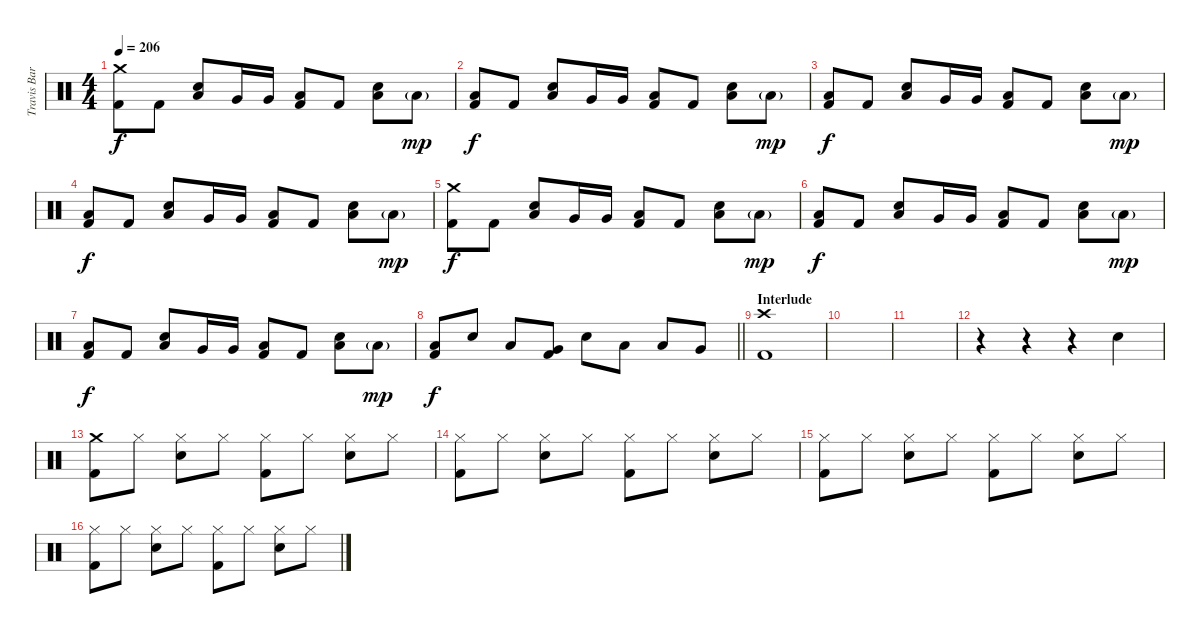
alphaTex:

\track ("Travis Barker - Drums" "Travis Bar") {instrument percussion}
\staff {score}
\articulation defaults
\ts (4 4)
\tempo 206
\clef neutral
\ks c
("Crash medium (hit)" "Kick (hit) 2").8{dy f} "Kick (hit) 2".8 ("Low Floor Tom (hit)" "Electric Snare (hit)").8 "Very Low Tom (hit)".16 "Very Low Tom (hit)".16 ("Low Floor Tom (hit)" "Kick (hit) 2").8 "Kick (hit) 2".8 ("Low Floor Tom (hit)" "Electric Snare (hit)").8 "Low Floor Tom (hit)"{g}.8{dy mp} |
("Low Floor Tom (hit)" "Kick (hit) 2").8{dy f} "Kick (hit) 2".8 ("Low Floor Tom (hit)" "Electric Snare (hit)").8 "Very Low Tom (hit)".16 "Very Low Tom (hit)".16 ("Low Floor Tom (hit)" "Kick (hit) 2").8 "Kick (hit) 2".8 ("Low Floor Tom (hit)" "Electric Snare (hit)").8 "Low Floor Tom (hit)"{g}.8{dy mp} |
("Low Floor Tom (hit)" "Kick (hit) 2").8{dy f} "Kick (hit) 2".8 ("Low Floor Tom (hit)" "Electric Snare (hit)").8 "Very Low Tom (hit)".16 "Very Low Tom (hit)".16 ("Low Floor Tom (hit)" "Kick (hit) 2").8 "Kick (hit) 2".8 ("Low Floor Tom (hit)" "Electric Snare (hit)").8 "Low Floor Tom (hit)"{g}.8{dy mp} |
("Low Floor Tom (hit)" "Kick (hit) 2").8{dy f} "Kick (hit) 2".8 ("Low Floor Tom (hit)" "Electric Snare (hit)").8 "Very Low Tom (hit)".16 "Very Low Tom (hit)".16 ("Low Floor Tom (hit)" "Kick (hit) 2").8 "Kick (hit) 2".8 ("Low Floor Tom (hit)" "Electric Snare (hit)").8 "Low Floor Tom (hit)"{g}.8{dy mp} |
("Crash medium (hit)" "Kick (hit) 2").8{dy f} "Kick (hit) 2".8 ("Low Floor Tom (hit)" "Electric Snare (hit)").8 "Very Low Tom (hit)".16 "Very Low Tom (hit)".16 ("Low Floor Tom (hit)" "Kick (hit) 2").8 "Kick (hit) 2".8 ("Low Floor Tom (hit)" "Electric Snare (hit)").8 "Low Floor Tom (hit)"{g}.8{dy mp} |
("Low Floor Tom (hit)" "Kick (hit) 2").8{dy f} "Kick (hit) 2".8 ("Low Floor Tom (hit)" "Electric Snare (hit)").8 "Very Low Tom (hit)".16 "Very Low Tom (hit)".16 ("Low Floor Tom (hit)" "Kick (hit) 2").8 "Kick (hit) 2".8 ("Low Floor Tom (hit)" "Electric Snare (hit)").8 "Low Floor Tom (hit)"{g}.8{dy mp} |
("Low Floor Tom (hit)" "Kick (hit) 2").8{dy f} "Kick (hit) 2".8 ("Low Floor Tom (hit)" "Electric Snare (hit)").8 "Very Low Tom (hit)".16 "Very Low Tom (hit)".16 ("Low Floor Tom (hit)" "Kick (hit) 2").8 "Kick (hit) 2".8 ("Low Floor Tom (hit)" "Electric Snare (hit)").8 "Low Floor Tom (hit)"{g}.8{dy mp} |
\barLineRight lightlight
("Low Floor Tom (hit)" "Kick (hit) 2").8{dy f} "Electric Snare (hit)".8 "Low Floor Tom (hit)".8 ("Very Low Tom (hit)" "Kick (hit) 2").8 "Electric Snare (hit)".8 "Low Tom (hit)".8 "Low Tom (hit)".8 "Very Low Tom (hit)".8 |
\section ("" "Interlude")
("Crash high (hit)" "Kick (hit) 2").1 |
|
|
r.4 r.4 r.4 "Electric Snare (hit)".4 |
("Crash medium (hit)" "Kick (hit) 2").8 "Hi-Hat (closed)".8 ("Hi-Hat (closed)" "Electric Snare (hit)").8 "Hi-Hat (closed)".8 ("Hi-Hat (closed)" "Kick (hit) 2").8 "Hi-Hat (closed)".8 ("Hi-Hat (closed)" "Electric Snare (hit)").8 "Hi-Hat (closed)".8 |
("Hi-Hat (closed)" "Kick (hit) 2").8 "Hi-Hat (closed)".8 ("Hi-Hat (closed)" "Electric Snare (hit)").8 "Hi-Hat (closed)".8 ("Hi-Hat (closed)" "Kick (hit) 2").8 "Hi-Hat (closed)".8 ("Hi-Hat (closed)" "Electric Snare (hit)").8 "Hi-Hat (closed)".8 |
("Hi-Hat (closed)" "Kick (hit) 2").8 "Hi-Hat (closed)".8 ("Hi-Hat (closed)" "Electric Snare (hit)").8 "Hi-Hat (closed)".8 ("Hi-Hat (closed)" "Kick (hit) 2").8 "Hi-Hat (closed)".8 ("Hi-Hat (closed)" "Electric Snare (hit)").8 "Hi-Hat (closed)".8 |
("Hi-Hat (closed)" "Kick (hit) 2").8 "Hi-Hat (closed)".8 ("Hi-Hat (closed)" "Electric Snare (hit)").8 "Hi-Hat (closed)".8 ("Hi-Hat (closed)" "Kick (hit) 2").8 "Hi-Hat (closed)".8 ("Hi-Hat (closed)" "Electric Snare (hit)").8 "Hi-Hat (closed)".8
